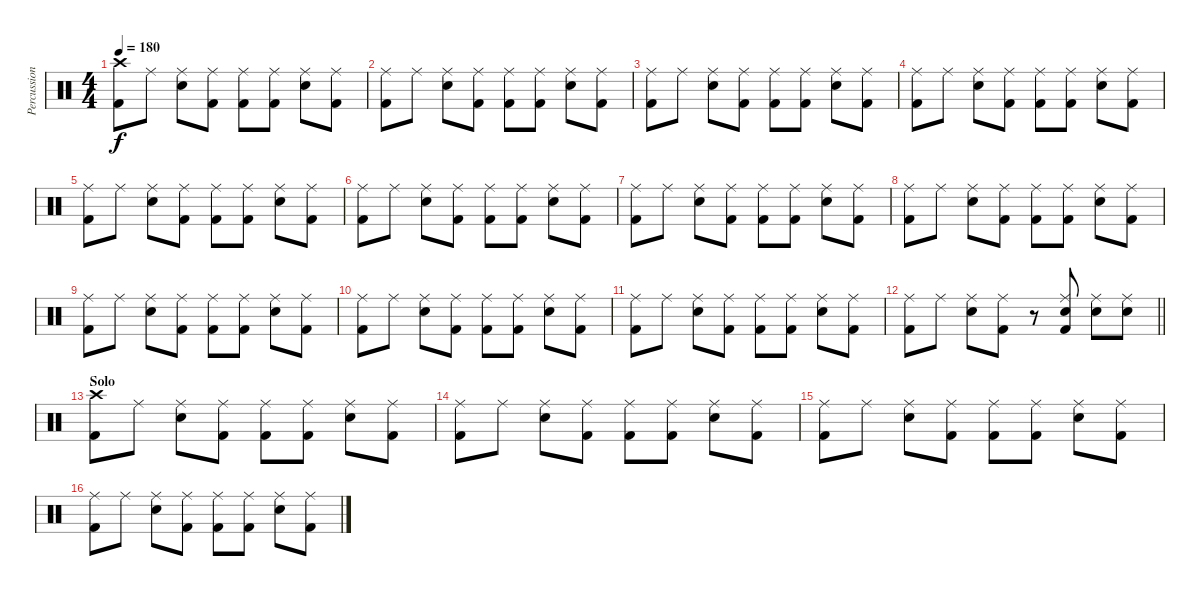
\track ("Percussions" "Percussion") {instrument percussion}
\staff {score}
\articulation defaults
\ts (4 4)
\tempo 180
\clef neutral
\ks c
("Crash high (hit)" "Kick (hit) 2").8{dy f} "Ride (middle)".8 ("Ride (middle)" "Snare (hit) 2").8 ("Ride (middle)" "Kick (hit) 2").8 ("Ride (middle)" "Kick (hit) 2").8 ("Ride (middle)" "Kick (hit) 2").8 ("Ride (middle)" "Snare (hit) 2").8 ("Ride (middle)" "Kick (hit) 2").8 |
("Ride (middle)" "Kick (hit) 2").8 "Ride (middle)".8 ("Ride (middle)" "Snare (hit) 2").8 ("Ride (middle)" "Kick (hit) 2").8 ("Ride (middle)" "Kick (hit) 2").8 ("Ride (middle)" "Kick (hit) 2").8 ("Ride (middle)" "Snare (hit) 2").8 ("Ride (middle)" "Kick (hit) 2").8 |
("Ride (middle)" "Kick (hit) 2").8 "Ride (middle)".8 ("Ride (middle)" "Snare (hit) 2").8 ("Ride (middle)" "Kick (hit) 2").8 ("Ride (middle)" "Kick (hit) 2").8 ("Ride (middle)" "Kick (hit) 2").8 ("Ride (middle)" "Snare (hit) 2").8 ("Ride (middle)" "Kick (hit) 2").8 |
("Ride (middle)" "Kick (hit) 2").8 "Ride (middle)".8 ("Ride (middle)" "Snare (hit) 2").8 ("Ride (middle)" "Kick (hit) 2").8 ("Ride (middle)" "Kick (hit) 2").8 ("Ride (middle)" "Kick (hit) 2").8 ("Ride (middle)" "Snare (hit) 2").8 ("Ride (middle)" "Kick (hit) 2").8 |
("Ride (middle)" "Kick (hit) 2").8 "Ride (middle)".8 ("Ride (middle)" "Snare (hit) 2").8 ("Ride (middle)" "Kick (hit) 2").8 ("Ride (middle)" "Kick (hit) 2").8 ("Ride (middle)" "Kick (hit) 2").8 ("Ride (middle)" "Snare (hit) 2").8 ("Ride (middle)" "Kick (hit) 2").8 |
("Ride (middle)" "Kick (hit) 2").8 "Ride (middle)".8 ("Ride (middle)" "Snare (hit) 2").8 ("Ride (middle)" "Kick (hit) 2").8 ("Ride (middle)" "Kick (hit) 2").8 ("Ride (middle)" "Kick (hit) 2").8 ("Ride (middle)" "Snare (hit) 2").8 ("Ride (middle)" "Kick (hit) 2").8 |
("Ride (middle)" "Kick (hit) 2").8 "Ride (middle)".8 ("Ride (middle)" "Snare (hit) 2").8 ("Ride (middle)" "Kick (hit) 2").8 ("Ride (middle)" "Kick (hit) 2").8 ("Ride (middle)" "Kick (hit) 2").8 ("Ride (middle)" "Snare (hit) 2").8 ("Ride (middle)" "Kick (hit) 2").8 |
("Ride (middle)" "Kick (hit) 2").8 "Ride (middle)".8 ("Ride (middle)" "Snare (hit) 2").8 ("Ride (middle)" "Kick (hit) 2").8 ("Ride (middle)" "Kick (hit) 2").8 ("Ride (middle)" "Kick (hit) 2").8 ("Ride (middle)" "Snare (hit) 2").8 ("Ride (middle)" "Kick (hit) 2").8 |
("Ride (middle)" "Kick (hit) 2").8 "Ride (middle)".8 ("Ride (middle)" "Snare (hit) 2").8 ("Ride (middle)" "Kick (hit) 2").8 ("Ride (middle)" "Kick (hit) 2").8 ("Ride (middle)" "Kick (hit) 2").8 ("Ride (middle)" "Snare (hit) 2").8 ("Ride (middle)" "Kick (hit) 2").8 |
("Ride (middle)" "Kick (hit) 2").8 "Ride (middle)".8 ("Ride (middle)" "Snare (hit) 2").8 ("Ride (middle)" "Kick (hit) 2").8 ("Ride (middle)" "Kick (hit) 2").8 ("Ride (middle)" "Kick (hit) 2").8 ("Ride (middle)" "Snare (hit) 2").8 ("Ride (middle)" "Kick (hit) 2").8 |
("Ride (middle)" "Kick (hit) 2").8 "Ride (middle)".8 ("Ride (middle)" "Snare (hit) 2").8 ("Ride (middle)" "Kick (hit) 2").8 ("Ride (middle)" "Kick (hit) 2").8 ("Ride (middle)" "Kick (hit) 2").8 ("Ride (middle)" "Snare (hit) 2").8 ("Ride (middle)" "Kick (hit) 2").8 |
\barLineRight lightlight
("Ride (middle)" "Kick (hit) 2").8 "Ride (middle)".8 ("Ride (middle)" "Snare (hit) 2").8 ("Ride (middle)" "Kick (hit) 2").8 r.8 ("Ride (middle)" "Snare (hit) 2" "Kick (hit) 2").8 ("Ride (middle)" "Snare (hit) 2").8 ("Ride (middle)" "Snare (hit) 2").8 |
\section ("" "Solo")
("Crash high (hit)" "Kick (hit) 2").8 "Ride (middle)".8 ("Ride (middle)" "Snare (hit) 2").8 ("Ride (middle)" "Kick (hit) 2").8 ("Ride (middle)" "Kick (hit) 2").8 ("Ride (middle)" "Kick (hit) 2").8 ("Ride (middle)" "Snare (hit) 2").8 ("Ride (middle)" "Kick (hit) 2").8 |
("Ride (middle)" "Kick (hit) 2").8 "Ride (middle)".8 ("Ride (middle)" "Snare (hit) 2").8 ("Ride (middle)" "Kick (hit) 2").8 ("Ride (middle)" "Kick (hit) 2").8 ("Ride (middle)" "Kick (hit) 2").8 ("Ride (middle)" "Snare (hit) 2").8 ("Ride (middle)" "Kick (hit) 2").8 |
("Ride (middle)" "Kick (hit) 2").8 "Ride (middle)".8 ("Ride (middle)" "Snare (hit) 2").8 ("Ride (middle)" "Kick (hit) 2").8 ("Ride (middle)" "Kick (hit) 2").8 ("Ride (middle)" "Kick (hit) 2").8 ("Ride (middle)" "Snare (hit) 2").8 ("Ride (middle)" "Kick (hit) 2").8 |
("Ride (middle)" "Kick (hit) 2").8 "Ride (middle)".8 ("Ride (middle)" "Snare (hit) 2").8 ("Ride (middle)" "Kick (hit) 2").8 ("Ride (middle)" "Kick (hit) 2").8 ("Ride (middle)" "Kick (hit) 2").8 ("Ride (middle)" "Snare (hit) 2").8 ("Ride (middle)" "Kick (hit) 2").8
